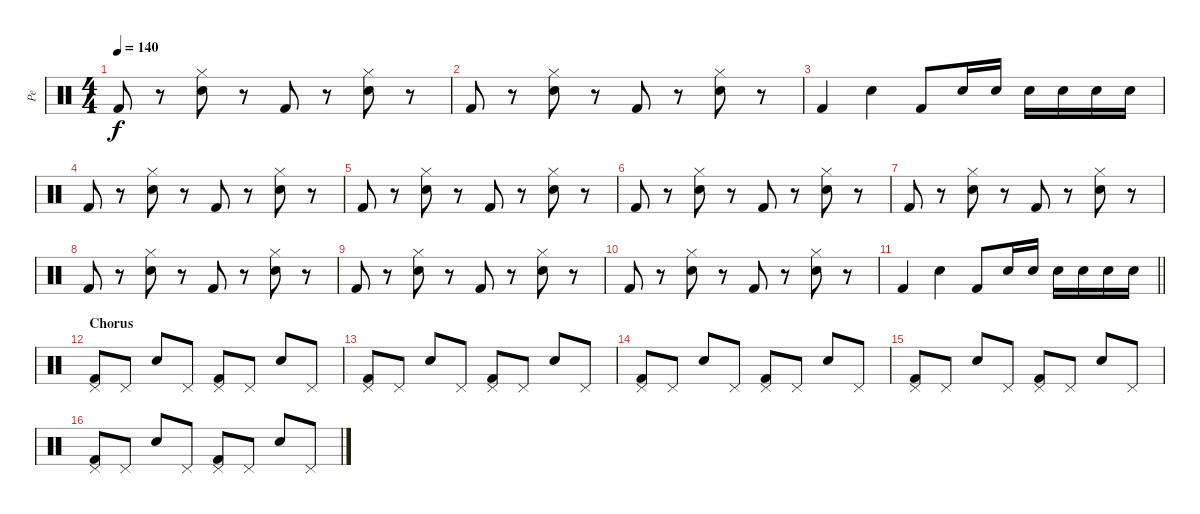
\track ("Pe" "Pe") {instrument percussion}
\staff {score}
\articulation defaults
\ts (4 4)
\tempo 140
\clef neutral
\ks c "Kick (hit) 2".8{dy f}
r.8 ("Snare (hit) 2" "Hi-Hat (closed)").8 r.8 "Kick (hit) 2".8 r.8 ("Snare (hit) 2" "Hi-Hat (closed)").8 r.8 |
"Kick (hit) 2".8 r.8 ("Snare (hit) 2" "Hi-Hat (closed)").8 r.8 "Kick (hit) 2".8 r.8 ("Snare (hit) 2" "Hi-Hat (closed)").8 r.8 |
"Kick (hit) 2".4 "Snare (hit) 2".4 "Kick (hit) 2".8 "Snare (hit) 2".16 "Snare (hit) 2".16 "Snare (hit) 2".16 "Snare (hit) 2".16 "Snare (hit) 2".16 "Snare (hit) 2".16 |
"Kick (hit) 2".8 r.8 ("Snare (hit) 2" "Hi-Hat (closed)").8 r.8 "Kick (hit) 2".8 r.8 ("Snare (hit) 2" "Hi-Hat (closed)").8 r.8 |
"Kick (hit) 2".8 r.8 ("Snare (hit) 2" "Hi-Hat (closed)").8 r.8 "Kick (hit) 2".8 r.8 ("Snare (hit) 2" "Hi-Hat (closed)").8 r.8 |
"Kick (hit) 2".8 r.8 ("Snare (hit) 2" "Hi-Hat (closed)").8 r.8 "Kick (hit) 2".8 r.8 ("Snare (hit) 2" "Hi-Hat (closed)").8 r.8 |
"Kick (hit) 2".8 r.8 ("Snare (hit) 2" "Hi-Hat (closed)").8 r.8 "Kick (hit) 2".8 r.8 ("Snare (hit) 2" "Hi-Hat (closed)").8 r.8 |
"Kick (hit) 2".8 r.8 ("Snare (hit) 2" "Hi-Hat (closed)").8 r.8 "Kick (hit) 2".8 r.8 ("Snare (hit) 2" "Hi-Hat (closed)").8 r.8 |
"Kick (hit) 2".8 r.8 ("Snare (hit) 2" "Hi-Hat (closed)").8 r.8 "Kick (hit) 2".8 r.8 ("Snare (hit) 2" "Hi-Hat (closed)").8 r.8 |
"Kick (hit) 2".8 r.8 ("Snare (hit) 2" "Hi-Hat (closed)").8 r.8 "Kick (hit) 2".8 r.8 ("Snare (hit) 2" "Hi-Hat (closed)").8 r.8 |
\barLineRight lightlight "Kick (hit) 2".4 "Snare (hit) 2".4 "Kick (hit) 2".8 "Snare (hit) 2".16 "Snare (hit) 2".16 "Snare (hit) 2".16 "Snare (hit) 2".16 "Snare (hit) 2".16 "Snare (hit) 2".16
|
\section ("" "Chorus")
("Kick (hit) 2" "Pedal Hi-Hat (hit)").8 "Pedal Hi-Hat (hit)".8 "Snare (hit) 2".8 "Pedal Hi-Hat (hit)".8 ("Kick (hit) 2" "Pedal Hi-Hat (hit)").8 "Pedal Hi-Hat (hit)".8 "Snare (hit) 2".8 "Pedal Hi-Hat (hit)".8 |
("Kick (hit) 2" "Pedal Hi-Hat (hit)").8 "Pedal Hi-Hat (hit)".8 "Snare (hit) 2".8 "Pedal Hi-Hat (hit)".8 ("Kick (hit) 2" "Pedal Hi-Hat (hit)").8 "Pedal Hi-Hat (hit)".8 "Snare (hit) 2".8 "Pedal Hi-Hat (hit)".8 |
("Kick (hit) 2" "Pedal Hi-Hat (hit)").8 "Pedal Hi-Hat (hit)".8 "Snare (hit) 2".8 "Pedal Hi-Hat (hit)".8 ("Kick (hit) 2" "Pedal Hi-Hat (hit)").8 "Pedal Hi-Hat (hit)".8 "Snare (hit) 2".8 "Pedal Hi-Hat (hit)".8 |
("Kick (hit) 2" "Pedal Hi-Hat (hit)").8 "Pedal Hi-Hat (hit)".8 "Snare (hit) 2".8 "Pedal Hi-Hat (hit)".8 ("Kick (hit) 2" "Pedal Hi-Hat (hit)").8 "Pedal Hi-Hat (hit)".8 "Snare (hit) 2".8 "Pedal Hi-Hat (hit)".8 |
("Kick (hit) 2" "Pedal Hi-Hat (hit)").8 "Pedal Hi-Hat (hit)".8 "Snare (hit) 2".8 "Pedal Hi-Hat (hit)".8 ("Kick (hit) 2" "Pedal Hi-Hat (hit)").8 "Pedal Hi-Hat (hit)".8 "Snare (hit) 2".8 "Pedal Hi-Hat (hit)".8
